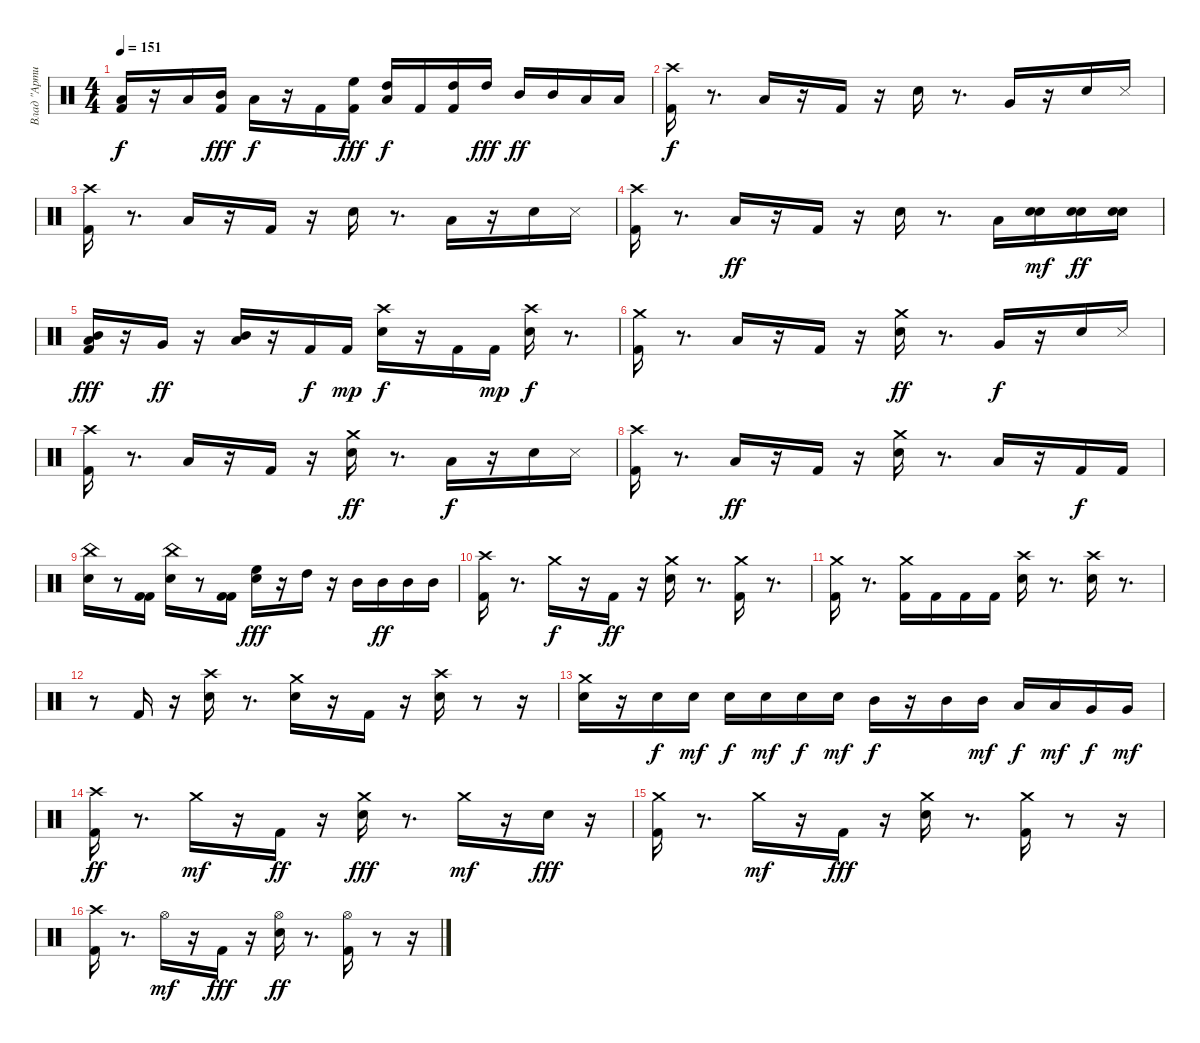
\track ("Влад \"Артист\"" "Влад \"Арти") {instrument percussion}
\staff {score}
\articulation defaults
\ts (4 4)
\tempo 151
\clef neutral
\ks c
("Kick (hit) 2" "Low Floor Tom (hit)").16{dy f} r.16 "Low Tom (hit)".16 ("Kick (hit) 2" "Mid Tom (hit)").16{dy fff} "Low Floor Tom (hit)".16{dy f} r.16 "Kick (hit) 2".16 ("Kick (hit) 2" "High Floor Tom (hit)").16{dy fff} ("High Tom (hit)" "Low Floor Tom (hit)").16{dy f} "Kick (hit) 2".16 ("Kick (hit) 2" "High Tom (hit)").16 "High Tom (hit)".16{dy fff} "Mid Tom (hit)".16{dy ff} "Mid Tom (hit)".16 "Low Tom (hit)".16 "Low Tom (hit)".16 |
("Kick (hit) 2" "Crash high (hit)").16{dy f} r.8{d} "Low Floor Tom (hit)".16 r.16 "Kick (hit) 2".16 r.16 "Snare (hit) 2".16 r.8{d} "Very Low Tom (hit)".16 r.16 "Hand Clap (hit)".16 "Snare (side stick) 3".16 |
("Kick (hit) 2" "Crash high (hit)").16 r.8{d} "Low Floor Tom (hit)".16 r.16 "Kick (hit) 2".16 r.16 "Snare (hit) 2".16 r.8{d} "Low Floor Tom (hit)".16 r.16 "Hand Clap (hit)".16 "Snare (side stick) 3".16 |
("Kick (hit) 2" "Crash high (hit)").16 r.8{d} "Low Floor Tom (hit)".16{dy ff} r.16 "Kick (hit) 2".16 r.16 "Snare (hit) 2".16 r.8{d} "Low Floor Tom (hit)".16 ("Electric Snare (hit)" "Electric Snare (hit)").16{dy mf} ("Electric Snare (hit)" "Electric Snare (hit)").16{dy ff} ("Electric Snare (hit)" "Electric Snare (hit)").16 |
("Mid Tom (hit)" "Kick (hit) 2" "Low Floor Tom (hit)").16{dy fff} r.16 "Very Low Tom (hit)".16{dy ff} r.16 ("Mid Tom (hit)" "Low Floor Tom (hit)").16 r.16 "Kick (hit) 2".16{dy f} "Kick (hit) 2".16{dy mp} ("Crash high (hit)" "Snare (hit) 2").16{dy f} r.16 "Kick (hit) 2".16 "Kick (hit) 2".16{dy mp} ("Crash high (hit)" "Snare (hit) 2").16{dy f} r.8{d} |
("Kick (hit) 2" "Crash medium (hit)").16 r.8{d} "Low Floor Tom (hit)".16 r.16 "Kick (hit) 2".16 r.16 ("Snare (hit) 2" "Crash medium (hit)").16{dy ff} r.8{d} "Very Low Tom (hit)".16{dy f} r.16 "Hand Clap (hit)".16 "Snare (side stick) 3".16 |
("Kick (hit) 2" "Crash high (hit)").16 r.8{d} "Low Floor Tom (hit)".16 r.16 "Kick (hit) 2".16 r.16 ("Crash medium (hit)" "Snare (hit) 2").16{dy ff} r.8{d} "Low Floor Tom (hit)".16{dy f} r.16 "Hand Clap (hit)".16 "Snare (side stick) 3".16 |
("Kick (hit) 2" "Crash high (hit)").16 r.8{d} "Low Floor Tom (hit)".16{dy ff} r.16 "Kick (hit) 2".16 r.16 ("Crash medium (hit)" "Snare (hit) 2").16 r.8{d} "Low Floor Tom (hit)".16 r.16 "Kick (hit) 2".16{dy f} "Kick (hit) 2".16 |
("China (hit)" "Snare (hit) 2").16 r.8 ("Kick (hit) 2" "Kick (hit) 2").16 ("Snare (hit) 2" "China (hit)").16 r.8 ("Kick (hit) 2" "Kick (hit) 2").16 ("Snare (hit) 2" "High Floor Tom (hit)").16{dy fff} r.16 "High Tom (hit)".16 r.16 "Mid Tom (hit)".16 "Mid Tom (hit)".16{dy ff} "Mid Tom (hit)".16 "Mid Tom (hit)".16 |
("Crash high (hit)" "Kick (hit) 2").16 r.8{d} "Crash medium (hit)".16{dy f} r.16 "Kick (hit) 2".16{dy ff} r.16 ("Crash medium (hit)" "Snare (hit) 2").16 r.8{d} ("Crash medium (hit)" "Kick (hit) 2").16 r.8{d} |
("Crash medium (hit)" "Kick (hit) 2").16 r.8{d} ("Crash medium (hit)" "Kick (hit) 2").16 "Kick (hit) 2".16 "Kick (hit) 2".16 "Kick (hit) 2".16 ("Crash high (hit)" "Snare (hit) 2").16 r.8{d} ("Crash high (hit)" "Snare (hit) 2").16 r.8{d} |
r.8 "Kick (hit) 2".16 r.16 ("Crash high (hit)" "Snare (hit) 2").16 r.8{d} ("Crash medium (hit)" "Snare (hit) 2").16 r.16 "Kick (hit) 2".16 r.16 ("Crash high (hit)" "Snare (hit) 2").16 r.8 r.16 |
("Crash medium (hit)" "Snare (hit) 2").16 r.16 "Snare (hit) 2".16{dy f} "Snare (hit) 2".16{dy mf} "Snare (hit) 2".16{dy f} "Snare (hit) 2".16{dy mf} "Snare (hit) 2".16{dy f} "Snare (hit) 2".16{dy mf} "Mid Tom (hit)".16{dy f} r.16 "Mid Tom (hit)".16 "Mid Tom (hit)".16{dy mf} "Low Tom (hit)".16{dy f} "Low Tom (hit)".16{dy mf} "Very Low Tom (hit)".16{dy f} "Very Low Tom (hit)".16{dy mf} |
("Crash high (hit)" "Kick (hit) 2").16{dy ff} r.8{d} "Crash medium (hit)".16{dy mf} r.16 "Kick (hit) 2".16{dy ff} r.16 ("Crash medium (hit)" "Snare (hit) 2").16{dy fff} r.8{d} "Crash medium (hit)".16{dy mf} r.16 "Snare (hit) 2".16{dy fff} r.16 |
("Crash medium (hit)" "Kick (hit) 2").16 r.8{d} "Crash medium (hit)".16{dy mf} r.16 "Kick (hit) 2".16{dy fff} r.16 ("Crash medium (hit)" "Snare (hit) 2").16 r.8{d} ("Crash medium (hit)" "Kick (hit) 2").16 r.8 r.16 |
("Crash high (hit)" "Kick (hit) 2").16 r.8{d} "Hi-Hat (open)".16{dy mf} r.16 "Kick (hit) 2".16{dy fff} r.16 ("Hi-Hat (open)" "Snare (hit) 2").16{dy ff} r.8{d} ("Hi-Hat (open)" "Kick (hit) 2").16 r.8 r.16
